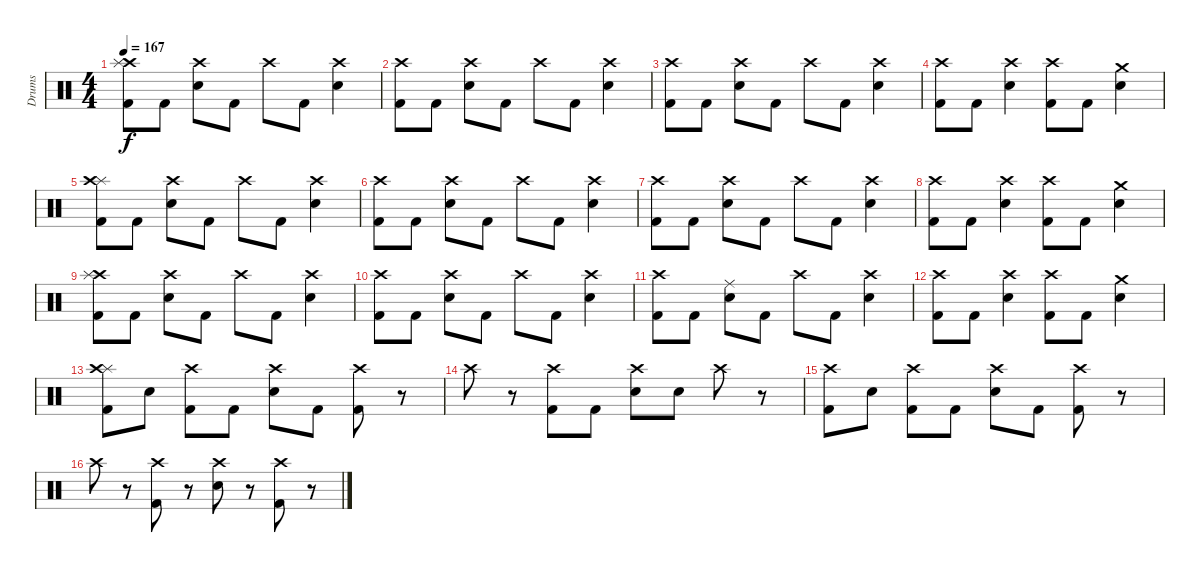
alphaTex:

\track ("Drums" "Drums") {instrument percussion}
\staff {score}
\articulation defaults
\ts (4 4)
\tempo 167
\clef neutral
\ks c
("Crash high (hit)" "Splash (hit)" "Kick (hit) 2").8{dy f} "Kick (hit) 2".8 ("Crash high (hit)" "Snare (hit) 2").8 "Kick (hit) 2".8 "Crash high (hit)".8 "Kick (hit) 2".8 ("Crash high (hit)" "Snare (hit) 2").4 |
("Crash high (hit)" "Kick (hit) 2").8 "Kick (hit) 2".8 ("Crash high (hit)" "Snare (hit) 2").8 "Kick (hit) 2".8 "Crash high (hit)".8 "Kick (hit) 2".8 ("Crash high (hit)" "Snare (hit) 2").4 |
("Crash high (hit)" "Kick (hit) 2").8 "Kick (hit) 2".8 ("Crash high (hit)" "Snare (hit) 2").8 "Kick (hit) 2".8 "Crash high (hit)".8 "Kick (hit) 2".8 ("Crash high (hit)" "Snare (hit) 2").4 |
("Crash high (hit)" "Kick (hit) 2").8 "Kick (hit) 2".8 ("Crash high (hit)" "Snare (hit) 2").4 ("Crash high (hit)" "Kick (hit) 2").8 "Kick (hit) 2".8 ("Crash medium (hit)" "Snare (hit) 2").4 |
("Splash (hit)" "Crash high (hit)" "Kick (hit) 2").8 "Kick (hit) 2".8 ("Crash high (hit)" "Snare (hit) 2").8 "Kick (hit) 2".8 "Crash high (hit)".8 "Kick (hit) 2".8 ("Crash high (hit)" "Snare (hit) 2").4 |
("Crash high (hit)" "Kick (hit) 2").8 "Kick (hit) 2".8 ("Crash high (hit)" "Snare (hit) 2").8 "Kick (hit) 2".8 "Crash high (hit)".8 "Kick (hit) 2".8 ("Crash high (hit)" "Snare (hit) 2").4 |
("Crash high (hit)" "Kick (hit) 2").8 "Kick (hit) 2".8 ("Crash high (hit)" "Snare (hit) 2").8 "Kick (hit) 2".8 "Crash high (hit)".8 "Kick (hit) 2".8 ("Crash high (hit)" "Snare (hit) 2").4 |
("Crash high (hit)" "Kick (hit) 2").8 "Kick (hit) 2".8 ("Crash high (hit)" "Snare (hit) 2").4 ("Crash high (hit)" "Kick (hit) 2").8 "Kick (hit) 2".8 ("Crash medium (hit)" "Snare (hit) 2").4 |
("Crash high (hit)" "Splash (hit)" "Kick (hit) 2").8 "Kick (hit) 2".8 ("Crash high (hit)" "Snare (hit) 2").8 "Kick (hit) 2".8 "Crash high (hit)".8 "Kick (hit) 2".8 ("Crash high (hit)" "Snare (hit) 2").4 |
("Crash high (hit)" "Kick (hit) 2").8 "Kick (hit) 2".8 ("Crash high (hit)" "Snare (hit) 2").8 "Kick (hit) 2".8 "Crash high (hit)".8 "Kick (hit) 2".8 ("Crash high (hit)" "Snare (hit) 2").4 |
("Crash high (hit)" "Kick (hit) 2").8 "Kick (hit) 2".8 ("Ride (middle)" "Snare (hit) 2").8 "Kick (hit) 2".8 "Crash high (hit)".8 "Kick (hit) 2".8 ("Crash high (hit)" "Snare (hit) 2").4 |
("Crash high (hit)" "Kick (hit) 2").8 "Kick (hit) 2".8 ("Crash high (hit)" "Snare (hit) 2").4 ("Crash high (hit)" "Kick (hit) 2").8 "Kick (hit) 2".8 ("Crash medium (hit)" "Snare (hit) 2").4 |
("Splash (hit)" "Crash high (hit)" "Kick (hit) 2").8 "Snare (hit) 2".8 ("Crash high (hit)" "Kick (hit) 2").8 "Kick (hit) 2".8 ("Crash high (hit)" "Snare (hit) 2").8 "Kick (hit) 2".8 ("Crash high (hit)" "Kick (hit) 2").8 r.8 |
"Crash high (hit)".8 r.8 ("Crash high (hit)" "Kick (hit) 2").8 "Kick (hit) 2".8 ("Crash high (hit)" "Snare (hit) 2").8 "Snare (hit) 2".8 "Crash high (hit)".8 r.8 |
("Crash high (hit)" "Kick (hit) 2").8 "Snare (hit) 2".8 ("Crash high (hit)" "Kick (hit) 2").8 "Kick (hit) 2".8 ("Crash high (hit)" "Snare (hit) 2").8 "Kick (hit) 2".8 ("Crash high (hit)" "Kick (hit) 2").8 r.8 |
"Crash high (hit)".8 r.8 ("Crash high (hit)" "Kick (hit) 2").8 r.8 ("Crash high (hit)" "Snare (hit) 2").8 r.8 ("Crash high (hit)" "Kick (hit) 2").8 r.8
